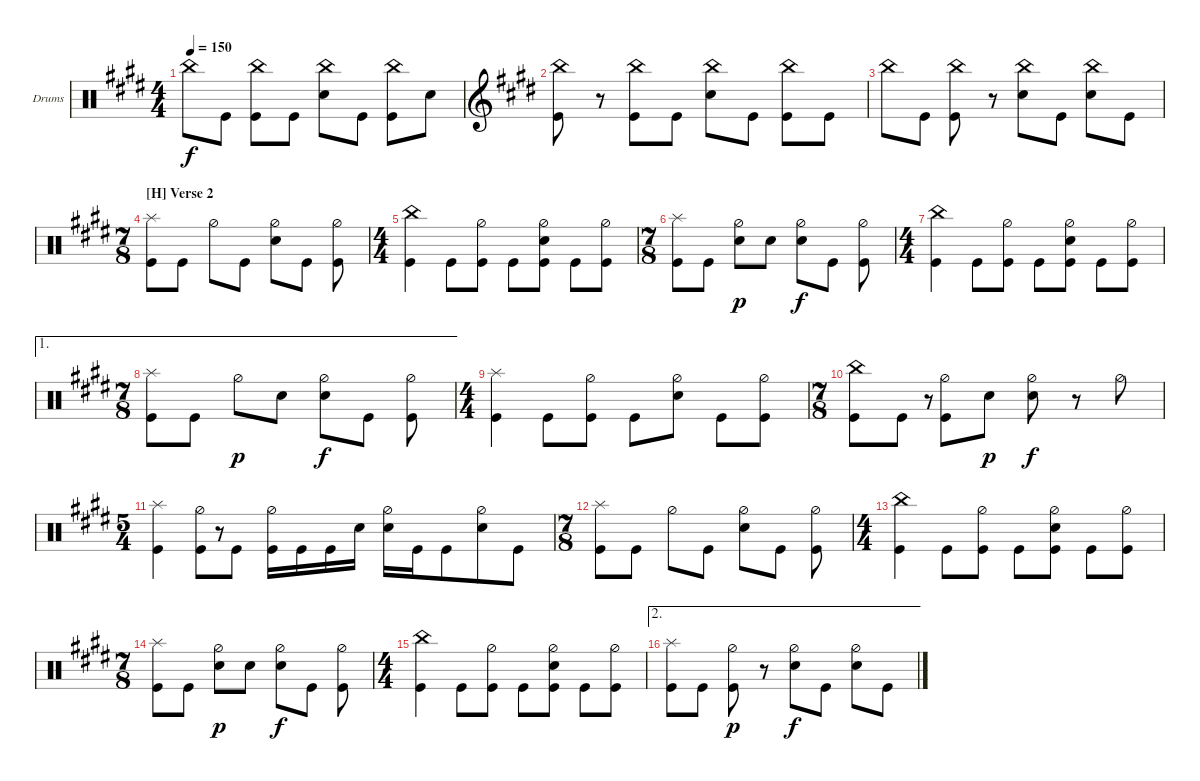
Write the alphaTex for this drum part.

\bracketExtendMode groupsimilarinstruments
\firstSystemTrackNameOrientation horizontal
\otherSystemsTrackNameOrientation horizontal
\track ("Drums" "Drums") {instrument percussion}
\staff {score}
\articulation defaults
\ts (4 4)
\tempo 150
\clef neutral
\ks e "China (hit)".8{dy f} "Kick (hit)".8
("Kick (hit)" "China (hit)").8 "Kick (hit)".8 ("Snare (hit) 2" "China (hit)").8 "Kick (hit)".8 ("Kick (hit)" "China (hit)").8 "Snare (hit) 2".8 |
\clef g2
("Kick (hit)" "China (hit)").8 r.8 ("Kick (hit)" "China (hit)").8 "Kick (hit)".8 ("Snare (hit) 2" "China (hit)").8 "Kick (hit)".8 ("Kick (hit)" "China (hit)").8 "Kick (hit)".8 |
"China (hit)".8 "Kick (hit)".8 ("China (hit)" "Kick (hit)").8 r.8 ("China (hit)" "Snare (hit) 2").8 "Kick (hit)".8 ("China (hit)" "Snare (hit) 2").8 "Kick (hit)".8 |
\ts (7 8)
\beaming (8 2 2 2 2)
\section ("H" "Verse 2")
\clef neutral
\scale
0.42522 ("Splash (hit)" "Kick (hit)").8 "Kick (hit)".8 "Hi-Hat (half)".8 "Kick (hit)".8 ("Hi-Hat (half)" "Snare (hit) 2").8 "Kick (hit)".8 ("Kick (hit)" "Hi-Hat (half)").8 |
\ts (4 4)
\beaming (8 2 2 2 2)
\scale
0.390029 ("China (hit)" "Kick (hit)").4 "Kick (hit)".8 ("Kick (hit)" "Hi-Hat (half)").8 "Kick (hit)".8 ("Snare (hit) 2" "Hi-Hat (half)" "Kick (hit)").8 "Kick (hit)".8 ("Kick (hit)" "Hi-Hat (half)").8 |
\ts (7 8)
\beaming (8 2 2 2 2)
\scale
0.333333 ("Kick (hit)" "Splash (hit)").8 "Kick (hit)".8 ("Snare (hit) 2" "Hi-Hat (half)").8{dy p} "Snare (hit) 2".8 ("Snare (hit) 2" "Hi-Hat (half)").8{dy f} "Kick (hit)".8 ("Kick (hit)" "Hi-Hat (half)").8 |
\ts (4 4)
\beaming (8 2 2 2 2)
\scale
0.333333 ("Kick (hit)" "China (hit)").4 "Kick (hit)".8 ("Kick (hit)" "Hi-Hat (half)").8 "Kick (hit)".8 ("Kick (hit)" "Snare (hit) 2" "Hi-Hat (half)").8 "Kick (hit)".8 ("Kick (hit)" "Hi-Hat (half)").8 |
\ae 1
\ts (7 8)
\beaming (8 2 2 2 2)
\scale
0.333333 ("Kick (hit)" "Splash (hit)").8 "Kick (hit)".8 "Hi-Hat (half)".8{dy p} "Snare (hit) 2".8 ("Snare (hit) 2" "Hi-Hat (half)").8{dy f} "Kick (hit)".8 ("Kick (hit)" "Hi-Hat (half)").8 |
\ts (4 4)
\beaming (8 2 2 2 2)
\scale
0.328395 ("Kick (hit)" "Splash (hit)").4 "Kick (hit)".8 ("Kick (hit)" "Hi-Hat (half)").8 "Kick (hit)".8 ("Snare (hit) 2" "Hi-Hat (half)").8 "Kick (hit)".8 ("Kick (hit)" "Hi-Hat (half)").8 |
\ts (7 8)
\beaming (8 2 2 2 2)
\scale
0.328395 ("Kick (hit)" "China (hit)").8 "Kick (hit)".8 r.8{gr} ("Hi-Hat (half)" "Kick (hit)").8 "Snare (hit) 2".8{dy p} ("Snare (hit) 2" "Hi-Hat (half)").8{dy f} r.8 "Hi-Hat (half)".8 |
\ts (5 4)
\beaming (8 2 2 2 4)
\scale
0.34321 ("Kick (hit)" "Splash (hit)").4 ("Kick (hit)" "Hi-Hat (half)").8 r.8{gr} "Kick (hit)".8 ("Kick (hit)" "Hi-Hat (half)").16 "Kick (hit)".16 "Kick (hit)".16 "Snare (hit) 2".16 ("Snare (hit) 2" "Hi-Hat (half)").16 "Kick (hit)".16 "Kick (hit)".8 ("Snare (hit) 2" "Hi-Hat (half)").8 "Kick (hit)".8 |
\ts (7 8)
("Splash (hit)" "Kick (hit)").8 "Kick (hit)".8 "Hi-Hat (half)".8 "Kick (hit)".8 ("Hi-Hat (half)" "Snare (hit) 2").8 "Kick (hit)".8 ("Kick (hit)" "Hi-Hat (half)").8 |
\ts (4 4)
\beaming (8 2 2 2 2)
("China (hit)" "Kick (hit)").4 "Kick (hit)".8 ("Kick (hit)" "Hi-Hat (half)").8 "Kick (hit)".8 ("Snare (hit) 2" "Hi-Hat (half)" "Kick (hit)").8 "Kick (hit)".8 ("Kick (hit)" "Hi-Hat (half)").8 |
\ts (7 8)
("Kick (hit)" "Splash (hit)").8 "Kick (hit)".8 ("Snare (hit) 2" "Hi-Hat (half)").8{dy p} "Snare (hit) 2".8 ("Snare (hit) 2" "Hi-Hat (half)").8{dy f} "Kick (hit)".8 ("Kick (hit)" "Hi-Hat (half)").8 |
\ts (4 4)
("Kick (hit)" "China (hit)").4 "Kick (hit)".8 ("Kick (hit)" "Hi-Hat (half)").8 "Kick (hit)".8 ("Kick (hit)" "Snare (hit) 2" "Hi-Hat (half)").8 "Kick (hit)".8 ("Kick (hit)" "Hi-Hat (half)").8 |
\ae 2
\scale
0.538462 ("Kick (hit)" "Splash (hit)").8 "Kick (hit)".8 ("Hi-Hat (half)" "Kick (hit)").8{dy p} r.8 ("Hi-Hat (half)" "Snare (hit) 2").8{dy f} "Kick (hit)".8 ("Hi-Hat (half)" "Snare (hit) 2").8 "Kick (hit)".8
